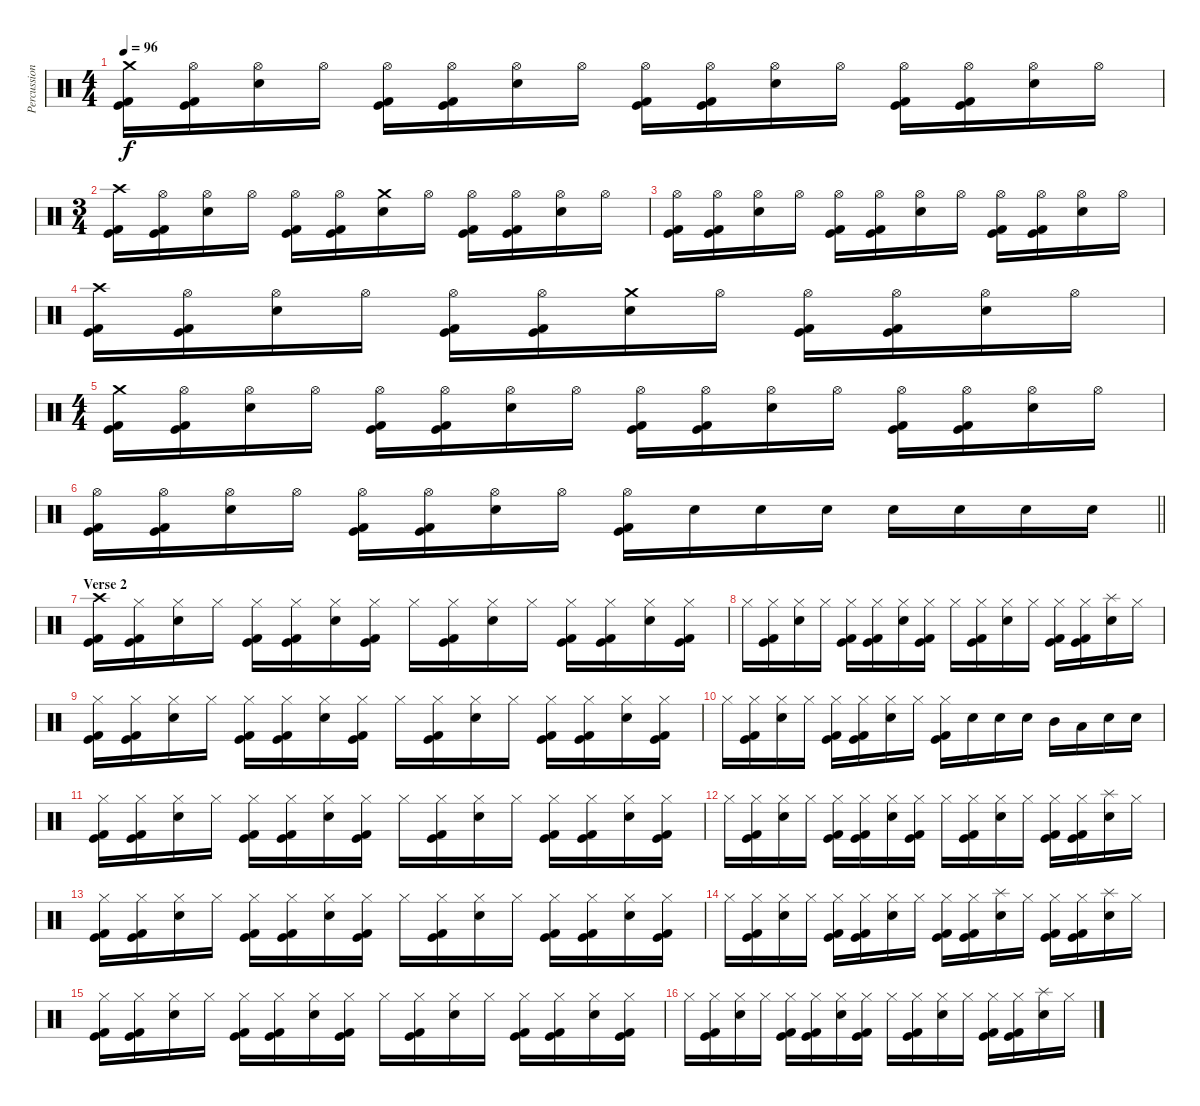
\track ("Percussion" "Percussion") {instrument percussion}
\staff {score}
\articulation defaults
\ts (4 4)
\tempo 96
\clef neutral
\ks c
("Crash medium (hit)" "Kick (hit)" "Kick (hit) 2").16{dy f} ("Hi-Hat (open)" "Kick (hit)" "Kick (hit) 2").16 ("Hi-Hat (open)" "Electric Snare (hit)").16 "Hi-Hat (open)".16 ("Hi-Hat (open)" "Kick (hit)" "Kick (hit) 2").16 ("Hi-Hat (open)" "Kick (hit)" "Kick (hit) 2").16 ("Hi-Hat (open)" "Electric Snare (hit)").16 "Hi-Hat (open)".16 ("Hi-Hat (open)" "Kick (hit)" "Kick (hit) 2").16 ("Hi-Hat (open)" "Kick (hit)" "Kick (hit) 2").16 ("Hi-Hat (open)" "Electric Snare (hit)").16 "Hi-Hat (open)".16 ("Hi-Hat (open)" "Kick (hit)" "Kick (hit) 2").16 ("Hi-Hat (open)" "Kick (hit)" "Kick (hit) 2").16 ("Hi-Hat (open)" "Electric Snare (hit)").16 "Hi-Hat (open)".16 |
\ts (3 4)
("Crash high (hit)" "Kick (hit)" "Kick (hit) 2").16 ("Hi-Hat (open)" "Kick (hit)" "Kick (hit) 2").16 ("Hi-Hat (open)" "Electric Snare (hit)").16 "Hi-Hat (open)".16 ("Hi-Hat (open)" "Kick (hit)" "Kick (hit) 2").16 ("Hi-Hat (open)" "Kick (hit)" "Kick (hit) 2").16 ("Crash medium (hit)" "Electric Snare (hit)").16 "Hi-Hat (open)".16 ("Hi-Hat (open)" "Kick (hit)" "Kick (hit) 2").16 ("Hi-Hat (open)" "Kick (hit)" "Kick (hit) 2").16 ("Hi-Hat (open)" "Electric Snare (hit)").16 "Hi-Hat (open)".16 |
("Hi-Hat (open)" "Kick (hit)" "Kick (hit) 2").16 ("Hi-Hat (open)" "Kick (hit)" "Kick (hit) 2").16 ("Hi-Hat (open)" "Electric Snare (hit)").16 "Hi-Hat (open)".16 ("Hi-Hat (open)" "Kick (hit)" "Kick (hit) 2").16 ("Hi-Hat (open)" "Kick (hit)" "Kick (hit) 2").16 ("Hi-Hat (open)" "Electric Snare (hit)").16 "Hi-Hat (open)".16 ("Hi-Hat (open)" "Kick (hit)" "Kick (hit) 2").16 ("Hi-Hat (open)" "Kick (hit)" "Kick (hit) 2").16 ("Hi-Hat (open)" "Electric Snare (hit)").16 "Hi-Hat (open)".16 |
("Crash high (hit)" "Kick (hit)" "Kick (hit) 2").16 ("Hi-Hat (open)" "Kick (hit)" "Kick (hit) 2").16 ("Hi-Hat (open)" "Electric Snare (hit)").16 "Hi-Hat (open)".16 ("Hi-Hat (open)" "Kick (hit)" "Kick (hit) 2").16 ("Hi-Hat (open)" "Kick (hit)" "Kick (hit) 2").16 ("Crash medium (hit)" "Electric Snare (hit)").16 "Hi-Hat (open)".16 ("Hi-Hat (open)" "Kick (hit)" "Kick (hit) 2").16 ("Hi-Hat (open)" "Kick (hit)" "Kick (hit) 2").16 ("Hi-Hat (open)" "Electric Snare (hit)").16 "Hi-Hat (open)".16 |
\ts (4 4)
("Crash medium (hit)" "Kick (hit)" "Kick (hit) 2").16 ("Hi-Hat (open)" "Kick (hit)" "Kick (hit) 2").16 ("Hi-Hat (open)" "Electric Snare (hit)").16 "Hi-Hat (open)".16 ("Hi-Hat (open)" "Kick (hit)" "Kick (hit) 2").16 ("Hi-Hat (open)" "Kick (hit)" "Kick (hit) 2").16 ("Hi-Hat (open)" "Electric Snare (hit)").16 "Hi-Hat (open)".16 ("Hi-Hat (open)" "Kick (hit)" "Kick (hit) 2").16 ("Hi-Hat (open)" "Kick (hit)" "Kick (hit) 2").16 ("Hi-Hat (open)" "Electric Snare (hit)").16 "Hi-Hat (open)".16 ("Hi-Hat (open)" "Kick (hit)" "Kick (hit) 2").16 ("Hi-Hat (open)" "Kick (hit)" "Kick (hit) 2").16 ("Hi-Hat (open)" "Electric Snare (hit)").16 "Hi-Hat (open)".16 |
\barLineRight lightlight
("Hi-Hat (open)" "Kick (hit)" "Kick (hit) 2").16 ("Hi-Hat (open)" "Kick (hit)" "Kick (hit) 2").16 ("Hi-Hat (open)" "Electric Snare (hit)").16 "Hi-Hat (open)".16 ("Hi-Hat (open)" "Kick (hit)" "Kick (hit) 2").16 ("Hi-Hat (open)" "Kick (hit)" "Kick (hit) 2").16 ("Hi-Hat (open)" "Electric Snare (hit)").16 "Hi-Hat (open)".16 ("Hi-Hat (open)" "Kick (hit)" "Kick (hit) 2").16 "Electric Snare (hit)".16 "Electric Snare (hit)".16 "Electric Snare (hit)".16 "Electric Snare (hit)".16 "Electric Snare (hit)".16 "Electric Snare (hit)".16 "Electric Snare (hit)".16 |
\section ("" "Verse 2")
("Crash high (hit)" "Kick (hit)" "Kick (hit) 2").16 ("Hi-Hat (closed)" "Kick (hit)" "Kick (hit) 2").16 ("Hi-Hat (closed)" "Electric Snare (hit)").16 "Hi-Hat (closed)".16 ("Hi-Hat (closed)" "Kick (hit)" "Kick (hit) 2").16 ("Hi-Hat (closed)" "Kick (hit)" "Kick (hit) 2").16 ("Hi-Hat (closed)" "Electric Snare (hit)").16 ("Hi-Hat (closed)" "Kick (hit)" "Kick (hit) 2").16 "Hi-Hat (closed)".16 ("Hi-Hat (closed)" "Kick (hit)" "Kick (hit) 2").16 ("Hi-Hat (closed)" "Electric Snare (hit)").16 "Hi-Hat (closed)".16 ("Hi-Hat (closed)" "Kick (hit)" "Kick (hit) 2").16 ("Hi-Hat (closed)" "Kick (hit)" "Kick (hit) 2").16 ("Hi-Hat (closed)" "Electric Snare (hit)").16 ("Hi-Hat (closed)" "Kick (hit)" "Kick (hit) 2").16 |
"Hi-Hat (closed)".16 ("Hi-Hat (closed)" "Kick (hit)" "Kick (hit) 2").16 ("Hi-Hat (closed)" "Electric Snare (hit)").16 "Hi-Hat (closed)".16 ("Hi-Hat (closed)" "Kick (hit)" "Kick (hit) 2").16 ("Hi-Hat (closed)" "Kick (hit)" "Kick (hit) 2").16 ("Hi-Hat (closed)" "Electric Snare (hit)").16 ("Hi-Hat (closed)" "Kick (hit)" "Kick (hit) 2").16 "Hi-Hat (closed)".16 ("Hi-Hat (closed)" "Kick (hit)" "Kick (hit) 2").16 ("Hi-Hat (closed)" "Electric Snare (hit)").16 "Hi-Hat (closed)".16 ("Hi-Hat (closed)" "Kick (hit)" "Kick (hit) 2").16 ("Hi-Hat (closed)" "Kick (hit)" "Kick (hit) 2").16 ("Splash (hit)" "Electric Snare (hit)").16 "Hi-Hat (closed)".16 |
("Hi-Hat (closed)" "Kick (hit)" "Kick (hit) 2").16 ("Hi-Hat (closed)" "Kick (hit)" "Kick (hit) 2").16 ("Hi-Hat (closed)" "Electric Snare (hit)").16 "Hi-Hat (closed)".16 ("Hi-Hat (closed)" "Kick (hit)" "Kick (hit) 2").16 ("Hi-Hat (closed)" "Kick (hit)" "Kick (hit) 2").16 ("Hi-Hat (closed)" "Electric Snare (hit)").16 ("Hi-Hat (closed)" "Kick (hit)" "Kick (hit) 2").16 "Hi-Hat (closed)".16 ("Hi-Hat (closed)" "Kick (hit)" "Kick (hit) 2").16 ("Hi-Hat (closed)" "Electric Snare (hit)").16 "Hi-Hat (closed)".16 ("Hi-Hat (closed)" "Kick (hit)" "Kick (hit) 2").16 ("Hi-Hat (closed)" "Kick (hit)" "Kick (hit) 2").16 ("Hi-Hat (closed)" "Electric Snare (hit)").16 ("Hi-Hat (closed)" "Kick (hit)" "Kick (hit) 2").16 |
"Hi-Hat (closed)".16 ("Hi-Hat (closed)" "Kick (hit)" "Kick (hit) 2").16 ("Hi-Hat (closed)" "Electric Snare (hit)").16 "Hi-Hat (closed)".16 ("Hi-Hat (closed)" "Kick (hit)" "Kick (hit) 2").16 ("Hi-Hat (closed)" "Kick (hit)" "Kick (hit) 2").16 ("Hi-Hat (closed)" "Electric Snare (hit)").16 "Hi-Hat (closed)".16 ("Hi-Hat (closed)" "Kick (hit)" "Kick (hit) 2").16 "Electric Snare (hit)".16 "Electric Snare (hit)".16 "Electric Snare (hit)".16 "Mid Tom (hit)".16 "Low Tom (hit)".16 "Electric Snare (hit)".16 "Electric Snare (hit)".16 |
("Hi-Hat (closed)" "Kick (hit)" "Kick (hit) 2").16 ("Hi-Hat (closed)" "Kick (hit)" "Kick (hit) 2").16 ("Hi-Hat (closed)" "Electric Snare (hit)").16 "Hi-Hat (closed)".16 ("Hi-Hat (closed)" "Kick (hit)" "Kick (hit) 2").16 ("Hi-Hat (closed)" "Kick (hit)" "Kick (hit) 2").16 ("Hi-Hat (closed)" "Electric Snare (hit)").16 ("Hi-Hat (closed)" "Kick (hit)" "Kick (hit) 2").16 "Hi-Hat (closed)".16 ("Hi-Hat (closed)" "Kick (hit)" "Kick (hit) 2").16 ("Hi-Hat (closed)" "Electric Snare (hit)").16 "Hi-Hat (closed)".16 ("Hi-Hat (closed)" "Kick (hit)" "Kick (hit) 2").16 ("Hi-Hat (closed)" "Kick (hit)" "Kick (hit) 2").16 ("Hi-Hat (closed)" "Electric Snare (hit)").16 ("Hi-Hat (closed)" "Kick (hit)" "Kick (hit) 2").16 |
"Hi-Hat (closed)".16 ("Hi-Hat (closed)" "Kick (hit)" "Kick (hit) 2").16 ("Hi-Hat (closed)" "Electric Snare (hit)").16 "Hi-Hat (closed)".16 ("Hi-Hat (closed)" "Kick (hit)" "Kick (hit) 2").16 ("Hi-Hat (closed)" "Kick (hit)" "Kick (hit) 2").16 ("Hi-Hat (closed)" "Electric Snare (hit)").16 ("Hi-Hat (closed)" "Kick (hit)" "Kick (hit) 2").16 "Hi-Hat (closed)".16 ("Hi-Hat (closed)" "Kick (hit)" "Kick (hit) 2").16 ("Hi-Hat (closed)" "Electric Snare (hit)").16 "Hi-Hat (closed)".16 ("Hi-Hat (closed)" "Kick (hit)" "Kick (hit) 2").16 ("Hi-Hat (closed)" "Kick (hit)" "Kick (hit) 2").16 ("Splash (hit)" "Electric Snare (hit)").16 "Hi-Hat (closed)".16 |
("Hi-Hat (closed)" "Kick (hit)" "Kick (hit) 2").16 ("Hi-Hat (closed)" "Kick (hit)" "Kick (hit) 2").16 ("Hi-Hat (closed)" "Electric Snare (hit)").16 "Hi-Hat (closed)".16 ("Hi-Hat (closed)" "Kick (hit)" "Kick (hit) 2").16 ("Hi-Hat (closed)" "Kick (hit)" "Kick (hit) 2").16 ("Hi-Hat (closed)" "Electric Snare (hit)").16 ("Hi-Hat (closed)" "Kick (hit)" "Kick (hit) 2").16 "Hi-Hat (closed)".16 ("Hi-Hat (closed)" "Kick (hit)" "Kick (hit) 2").16 ("Hi-Hat (closed)" "Electric Snare (hit)").16 "Hi-Hat (closed)".16 ("Hi-Hat (closed)" "Kick (hit)" "Kick (hit) 2").16 ("Hi-Hat (closed)" "Kick (hit)" "Kick (hit) 2").16 ("Hi-Hat (closed)" "Electric Snare (hit)").16 ("Hi-Hat (closed)" "Kick (hit)" "Kick (hit) 2").16 |
"Hi-Hat (closed)".16 ("Hi-Hat (closed)" "Kick (hit)" "Kick (hit) 2").16 ("Hi-Hat (closed)" "Electric Snare (hit)").16 "Hi-Hat (closed)".16 ("Hi-Hat (closed)" "Kick (hit)" "Kick (hit) 2").16 ("Hi-Hat (closed)" "Kick (hit)" "Kick (hit) 2").16 ("Hi-Hat (closed)" "Electric Snare (hit)").16 "Hi-Hat (closed)".16 ("Hi-Hat (closed)" "Kick (hit)" "Kick (hit) 2").16 ("Hi-Hat (closed)" "Kick (hit)" "Kick (hit) 2").16 ("Splash (hit)" "Electric Snare (hit)").16 "Hi-Hat (closed)".16 ("Hi-Hat (closed)" "Kick (hit)" "Kick (hit) 2").16 ("Hi-Hat (closed)" "Kick (hit)" "Kick (hit) 2").16 ("Splash (hit)" "Electric Snare (hit)").16 "Hi-Hat (closed)".16 |
("Hi-Hat (closed)" "Kick (hit)" "Kick (hit) 2").16 ("Hi-Hat (closed)" "Kick (hit)" "Kick (hit) 2").16 ("Hi-Hat (closed)" "Electric Snare (hit)").16 "Hi-Hat (closed)".16 ("Hi-Hat (closed)" "Kick (hit)" "Kick (hit) 2").16 ("Hi-Hat (closed)" "Kick (hit)" "Kick (hit) 2").16 ("Hi-Hat (closed)" "Electric Snare (hit)").16 ("Hi-Hat (closed)" "Kick (hit)" "Kick (hit) 2").16 "Hi-Hat (closed)".16 ("Hi-Hat (closed)" "Kick (hit)" "Kick (hit) 2").16 ("Hi-Hat (closed)" "Electric Snare (hit)").16 "Hi-Hat (closed)".16 ("Hi-Hat (closed)" "Kick (hit)" "Kick (hit) 2").16 ("Hi-Hat (closed)" "Kick (hit)" "Kick (hit) 2").16 ("Hi-Hat (closed)" "Electric Snare (hit)").16 ("Hi-Hat (closed)" "Kick (hit)" "Kick (hit) 2").16 |
"Hi-Hat (closed)".16 ("Hi-Hat (closed)" "Kick (hit)" "Kick (hit) 2").16 ("Hi-Hat (closed)" "Electric Snare (hit)").16 "Hi-Hat (closed)".16 ("Hi-Hat (closed)" "Kick (hit)" "Kick (hit) 2").16 ("Hi-Hat (closed)" "Kick (hit)" "Kick (hit) 2").16 ("Hi-Hat (closed)" "Electric Snare (hit)").16 ("Hi-Hat (closed)" "Kick (hit)" "Kick (hit) 2").16 "Hi-Hat (closed)".16 ("Hi-Hat (closed)" "Kick (hit)" "Kick (hit) 2").16 ("Hi-Hat (closed)" "Electric Snare (hit)").16 "Hi-Hat (closed)".16 ("Hi-Hat (closed)" "Kick (hit)" "Kick (hit) 2").16 ("Hi-Hat (closed)" "Kick (hit)" "Kick (hit) 2").16 ("Splash (hit)" "Electric Snare (hit)").16 "Hi-Hat (closed)".16
